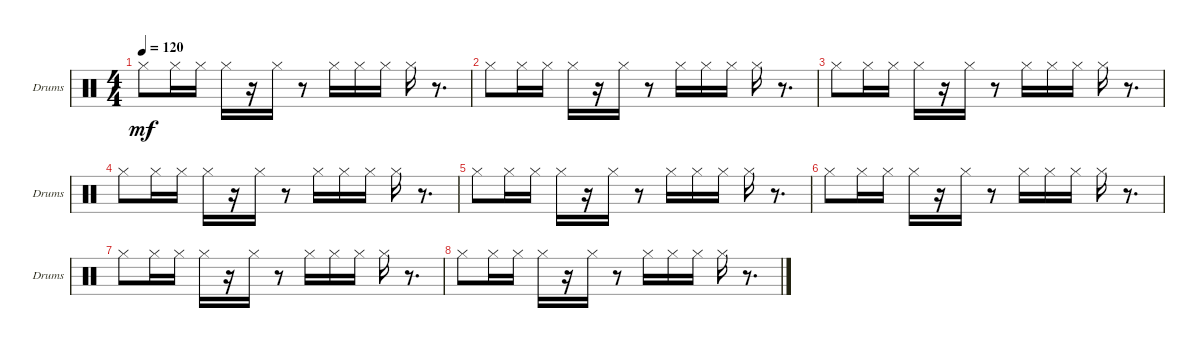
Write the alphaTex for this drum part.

\bracketExtendMode groupsimilarinstruments
\singleTrackTrackNamePolicy allsystems
\multiTrackTrackNamePolicy allsystems
\firstSystemTrackNameOrientation horizontal
\otherSystemsTrackNameOrientation horizontal
\track ("Drum hihat" "Drums") {instrument percussion}
\staff {score}
\articulation defaults
\ts (4 4)
\tempo 120
\clef neutral
\scale
0.973518
\ks c "Hi-Hat (closed)".8{dy mf} "Hi-Hat (closed)".16 "Hi-Hat (closed)".16 "Hi-Hat (closed)".16
r.16 "Hi-Hat (closed)".16 r.8 "Hi-Hat (closed)".16 "Hi-Hat (closed)".16 "Hi-Hat (closed)".16 "Hi-Hat (closed)".16 r.8{d} |
\scale
0.973518 "Hi-Hat (closed)".8 "Hi-Hat (closed)".16 "Hi-Hat (closed)".16 "Hi-Hat (closed)".16 r.16 "Hi-Hat (closed)".16 r.8 "Hi-Hat (closed)".16 "Hi-Hat (closed)".16 "Hi-Hat (closed)".16 "Hi-Hat (closed)".16 r.8{d} |
\scale
1.05296 "Hi-Hat (closed)".8 "Hi-Hat (closed)".16 "Hi-Hat (closed)".16 "Hi-Hat (closed)".16 r.16 "Hi-Hat (closed)".16 r.8 "Hi-Hat (closed)".16 "Hi-Hat (closed)".16 "Hi-Hat (closed)".16 "Hi-Hat (closed)".16 r.8{d} |
\scale
0.973518 "Hi-Hat (closed)".8 "Hi-Hat (closed)".16 "Hi-Hat (closed)".16 "Hi-Hat (closed)".16 r.16 "Hi-Hat (closed)".16 r.8 "Hi-Hat (closed)".16 "Hi-Hat (closed)".16 "Hi-Hat (closed)".16 "Hi-Hat (closed)".16 r.8{d} |
\scale
0.973518 "Hi-Hat (closed)".8 "Hi-Hat (closed)".16 "Hi-Hat (closed)".16 "Hi-Hat (closed)".16 r.16 "Hi-Hat (closed)".16 r.8 "Hi-Hat (closed)".16 "Hi-Hat (closed)".16 "Hi-Hat (closed)".16 "Hi-Hat (closed)".16 r.8{d} |
\scale
1.05296 "Hi-Hat (closed)".8 "Hi-Hat (closed)".16 "Hi-Hat (closed)".16 "Hi-Hat (closed)".16 r.16 "Hi-Hat (closed)".16 r.8 "Hi-Hat (closed)".16 "Hi-Hat (closed)".16 "Hi-Hat (closed)".16 "Hi-Hat (closed)".16 r.8{d} |
\scale
0.973518 "Hi-Hat (closed)".8 "Hi-Hat (closed)".16 "Hi-Hat (closed)".16 "Hi-Hat (closed)".16 r.16 "Hi-Hat (closed)".16 r.8 "Hi-Hat (closed)".16 "Hi-Hat (closed)".16 "Hi-Hat (closed)".16 "Hi-Hat (closed)".16 r.8{d} |
\scale
0.973518 "Hi-Hat (closed)".8 "Hi-Hat (closed)".16 "Hi-Hat (closed)".16 "Hi-Hat (closed)".16 r.16 "Hi-Hat (closed)".16 r.8 "Hi-Hat (closed)".16 "Hi-Hat (closed)".16 "Hi-Hat (closed)".16 "Hi-Hat (closed)".16 r.8{d}
